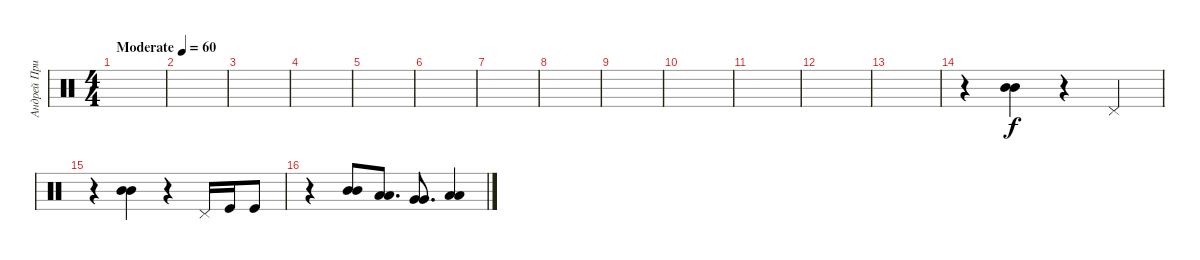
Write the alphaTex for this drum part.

\track ("Андрей Приставка" "Андрей При") {instrument percussion}
\staff {score}
\articulation defaults
\ts (4 4)
\tempo (60 "Moderate")
\clef neutral
\ks c
|
|
|
|
|
|
|
|
|
|
|
|
|
r.4 ("Mid Tom (hit)" "Mid Tom (hit)").4 r.4 "Pedal Hi-Hat (hit)".4 |
r.4 ("Mid Tom (hit)" "Mid Tom (hit)").4 r.4 "Pedal Hi-Hat (hit)".16 "Kick (hit)".16 "Kick (hit)".8 |
r.4 ("Mid Tom (hit)" "Mid Tom (hit)").8 ("Low Tom (hit)" "Low Tom (hit)").8{d} ("Very Low Tom (hit)" "Very Low Tom (hit)").8{d} ("Low Tom (hit)" "Low Tom (hit)").4
